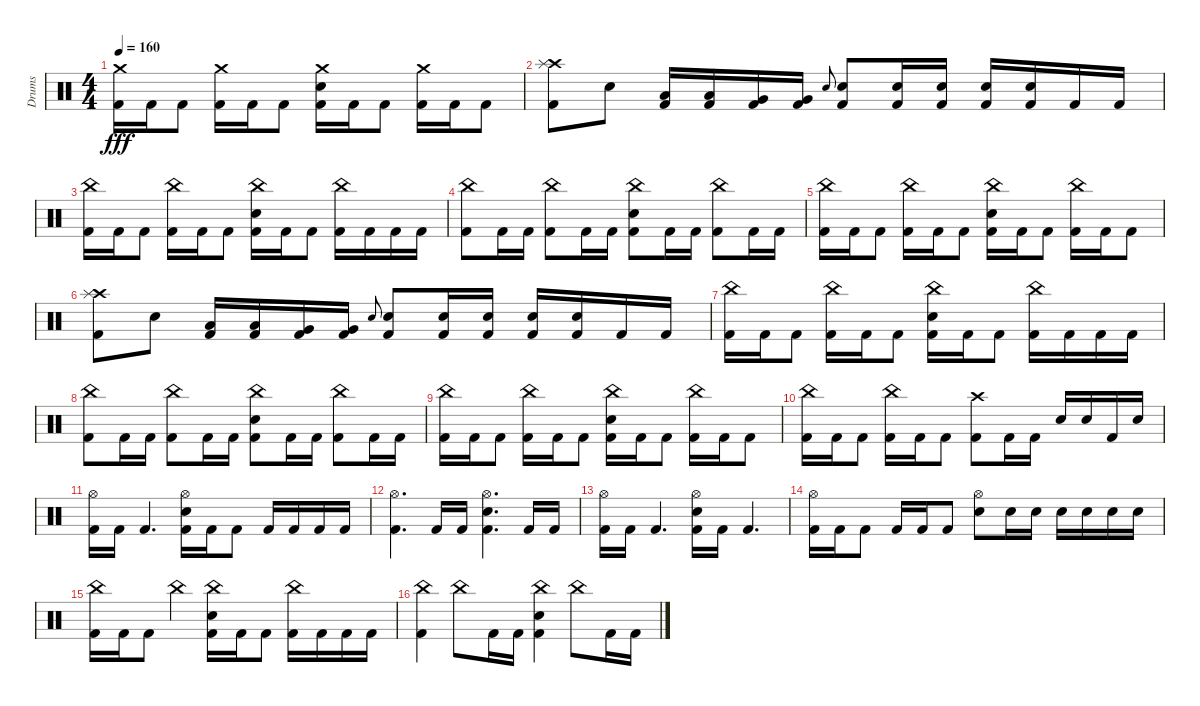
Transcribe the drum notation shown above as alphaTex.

\track ("Drums" "Drums") {instrument percussion}
\staff {score}
\articulation defaults
\ts (4 4)
\tempo 160
\clef neutral
\ks c
("Crash medium (hit)" "Kick (hit) 2").16{dy fff} "Kick (hit) 2".16 "Kick (hit) 2".8 ("Crash medium (hit)" "Kick (hit) 2").16 "Kick (hit) 2".16 "Kick (hit) 2".8 ("Crash medium (hit)" "Snare (hit) 2" "Kick (hit) 2").16 "Kick (hit) 2".16 "Kick (hit) 2".8 ("Crash medium (hit)" "Kick (hit) 2").16 "Kick (hit) 2".16 "Kick (hit) 2".8 |
("Crash high (hit)" "Splash (hit)" "Kick (hit) 2").8 "Snare (hit) 2".8 ("Low Tom (hit)" "Kick (hit) 2").16 ("Low Tom (hit)" "Kick (hit) 2").16 ("Very Low Tom (hit)" "Kick (hit) 2").16 ("Very Low Tom (hit)" "Kick (hit) 2").16 "Snare (hit) 2".8{gr onbeat} ("Snare (hit) 2" "Kick (hit) 2").8 ("Snare (hit) 2" "Kick (hit) 2").16 ("Snare (hit) 2" "Kick (hit) 2").16 ("Snare (hit) 2" "Kick (hit) 2").16 ("Snare (hit) 2" "Kick (hit) 2").16 "Kick (hit) 2".16 "Kick (hit) 2".16 |
("China (hit)" "Kick (hit) 2").16 "Kick (hit) 2".16 "Kick (hit) 2".8 ("China (hit)" "Kick (hit) 2").16 "Kick (hit) 2".16 "Kick (hit) 2".8 ("China (hit)" "Snare (hit) 2" "Kick (hit) 2").16 "Kick (hit) 2".16 "Kick (hit) 2".8 ("China (hit)" "Kick (hit) 2").16 "Kick (hit) 2".16 "Kick (hit) 2".16 "Kick (hit) 2".16 |
("China (hit)" "Kick (hit) 2").8 "Kick (hit) 2".16 "Kick (hit) 2".16 ("China (hit)" "Kick (hit) 2").8 "Kick (hit) 2".16 "Kick (hit) 2".16 ("China (hit)" "Snare (hit) 2" "Kick (hit) 2").8 "Kick (hit) 2".16 "Kick (hit) 2".16 ("China (hit)" "Kick (hit) 2").8 "Kick (hit) 2".16 "Kick (hit) 2".16 |
("China (hit)" "Kick (hit) 2").16 "Kick (hit) 2".16 "Kick (hit) 2".8 ("China (hit)" "Kick (hit) 2").16 "Kick (hit) 2".16 "Kick (hit) 2".8 ("China (hit)" "Snare (hit) 2" "Kick (hit) 2").16 "Kick (hit) 2".16 "Kick (hit) 2".8 ("China (hit)" "Kick (hit) 2").16 "Kick (hit) 2".16 "Kick (hit) 2".8 |
("Crash high (hit)" "Splash (hit)" "Kick (hit) 2").8 "Snare (hit) 2".8 ("Low Tom (hit)" "Kick (hit) 2").16 ("Low Tom (hit)" "Kick (hit) 2").16 ("Very Low Tom (hit)" "Kick (hit) 2").16 ("Very Low Tom (hit)" "Kick (hit) 2").16 "Snare (hit) 2".8{gr onbeat} ("Snare (hit) 2" "Kick (hit) 2").8 ("Snare (hit) 2" "Kick (hit) 2").16 ("Snare (hit) 2" "Kick (hit) 2").16 ("Snare (hit) 2" "Kick (hit) 2").16 ("Snare (hit) 2" "Kick (hit) 2").16 "Kick (hit) 2".16 "Kick (hit) 2".16 |
("China (hit)" "Kick (hit) 2").16 "Kick (hit) 2".16 "Kick (hit) 2".8 ("China (hit)" "Kick (hit) 2").16 "Kick (hit) 2".16 "Kick (hit) 2".8 ("China (hit)" "Snare (hit) 2" "Kick (hit) 2").16 "Kick (hit) 2".16 "Kick (hit) 2".8 ("China (hit)" "Kick (hit) 2").16 "Kick (hit) 2".16 "Kick (hit) 2".16 "Kick (hit) 2".16 |
("China (hit)" "Kick (hit) 2").8 "Kick (hit) 2".16 "Kick (hit) 2".16 ("China (hit)" "Kick (hit) 2").8 "Kick (hit) 2".16 "Kick (hit) 2".16 ("China (hit)" "Snare (hit) 2" "Kick (hit) 2").8 "Kick (hit) 2".16 "Kick (hit) 2".16 ("China (hit)" "Kick (hit) 2").8 "Kick (hit) 2".16 "Kick (hit) 2".16 |
("China (hit)" "Kick (hit) 2").16 "Kick (hit) 2".16 "Kick (hit) 2".8 ("China (hit)" "Kick (hit) 2").16 "Kick (hit) 2".16 "Kick (hit) 2".8 ("China (hit)" "Snare (hit) 2" "Kick (hit) 2").16 "Kick (hit) 2".16 "Kick (hit) 2".8 ("China (hit)" "Kick (hit) 2").16 "Kick (hit) 2".16 "Kick (hit) 2".8 |
("China (hit)" "Kick (hit) 2").16 "Kick (hit) 2".16 "Kick (hit) 2".8 ("China (hit)" "Kick (hit) 2").16 "Kick (hit) 2".16 "Kick (hit) 2".8 ("Crash high (hit)" "Kick (hit) 2").8 "Kick (hit) 2".16 "Kick (hit) 2".16 "Snare (hit) 2".16 "Snare (hit) 2".16 "Kick (hit) 2".16 "Snare (hit) 2".16 |
("Hi-Hat (open)" "Kick (hit) 2").16 "Kick (hit) 2".16 "Kick (hit) 2".4{d} ("Hi-Hat (open)" "Snare (hit) 2" "Kick (hit) 2").16 "Kick (hit) 2".16 "Kick (hit) 2".8 "Kick (hit) 2".16 "Kick (hit) 2".16 "Kick (hit) 2".16 "Kick (hit) 2".16 |
("Hi-Hat (open)" "Kick (hit) 2").4{d} "Kick (hit) 2".16 "Kick (hit) 2".16 ("Hi-Hat (open)" "Snare (hit) 2" "Kick (hit) 2").4{d} "Kick (hit) 2".16 "Kick (hit) 2".16 |
("Hi-Hat (open)" "Kick (hit) 2").16 "Kick (hit) 2".16 "Kick (hit) 2".4{d} ("Hi-Hat (open)" "Snare (hit) 2" "Kick (hit) 2").16 "Kick (hit) 2".16 "Kick (hit) 2".4{d} |
("Hi-Hat (open)" "Kick (hit) 2").16 "Kick (hit) 2".16 "Kick (hit) 2".8 "Kick (hit) 2".16 "Kick (hit) 2".16 "Kick (hit) 2".8 ("Hi-Hat (open)" "Snare (hit) 2").8 "Snare (hit) 2".16 "Snare (hit) 2".16 "Snare (hit) 2".16 "Snare (hit) 2".16 "Snare (hit) 2".16 "Snare (hit) 2".16 |
("China (hit)" "Kick (hit) 2").16 "Kick (hit) 2".16 "Kick (hit) 2".8 "China (hit)".4 ("China (hit)" "Snare (hit) 2" "Kick (hit) 2").16 "Kick (hit) 2".16 "Kick (hit) 2".8 ("China (hit)" "Kick (hit) 2").16 "Kick (hit) 2".16 "Kick (hit) 2".16 "Kick (hit) 2".16 |
("China (hit)" "Kick (hit) 2").4 "China (hit)".8 "Kick (hit) 2".16 "Kick (hit) 2".16 ("China (hit)" "Snare (hit) 2" "Kick (hit) 2").4 "China (hit)".8 "Kick (hit) 2".16 "Kick (hit) 2".16
